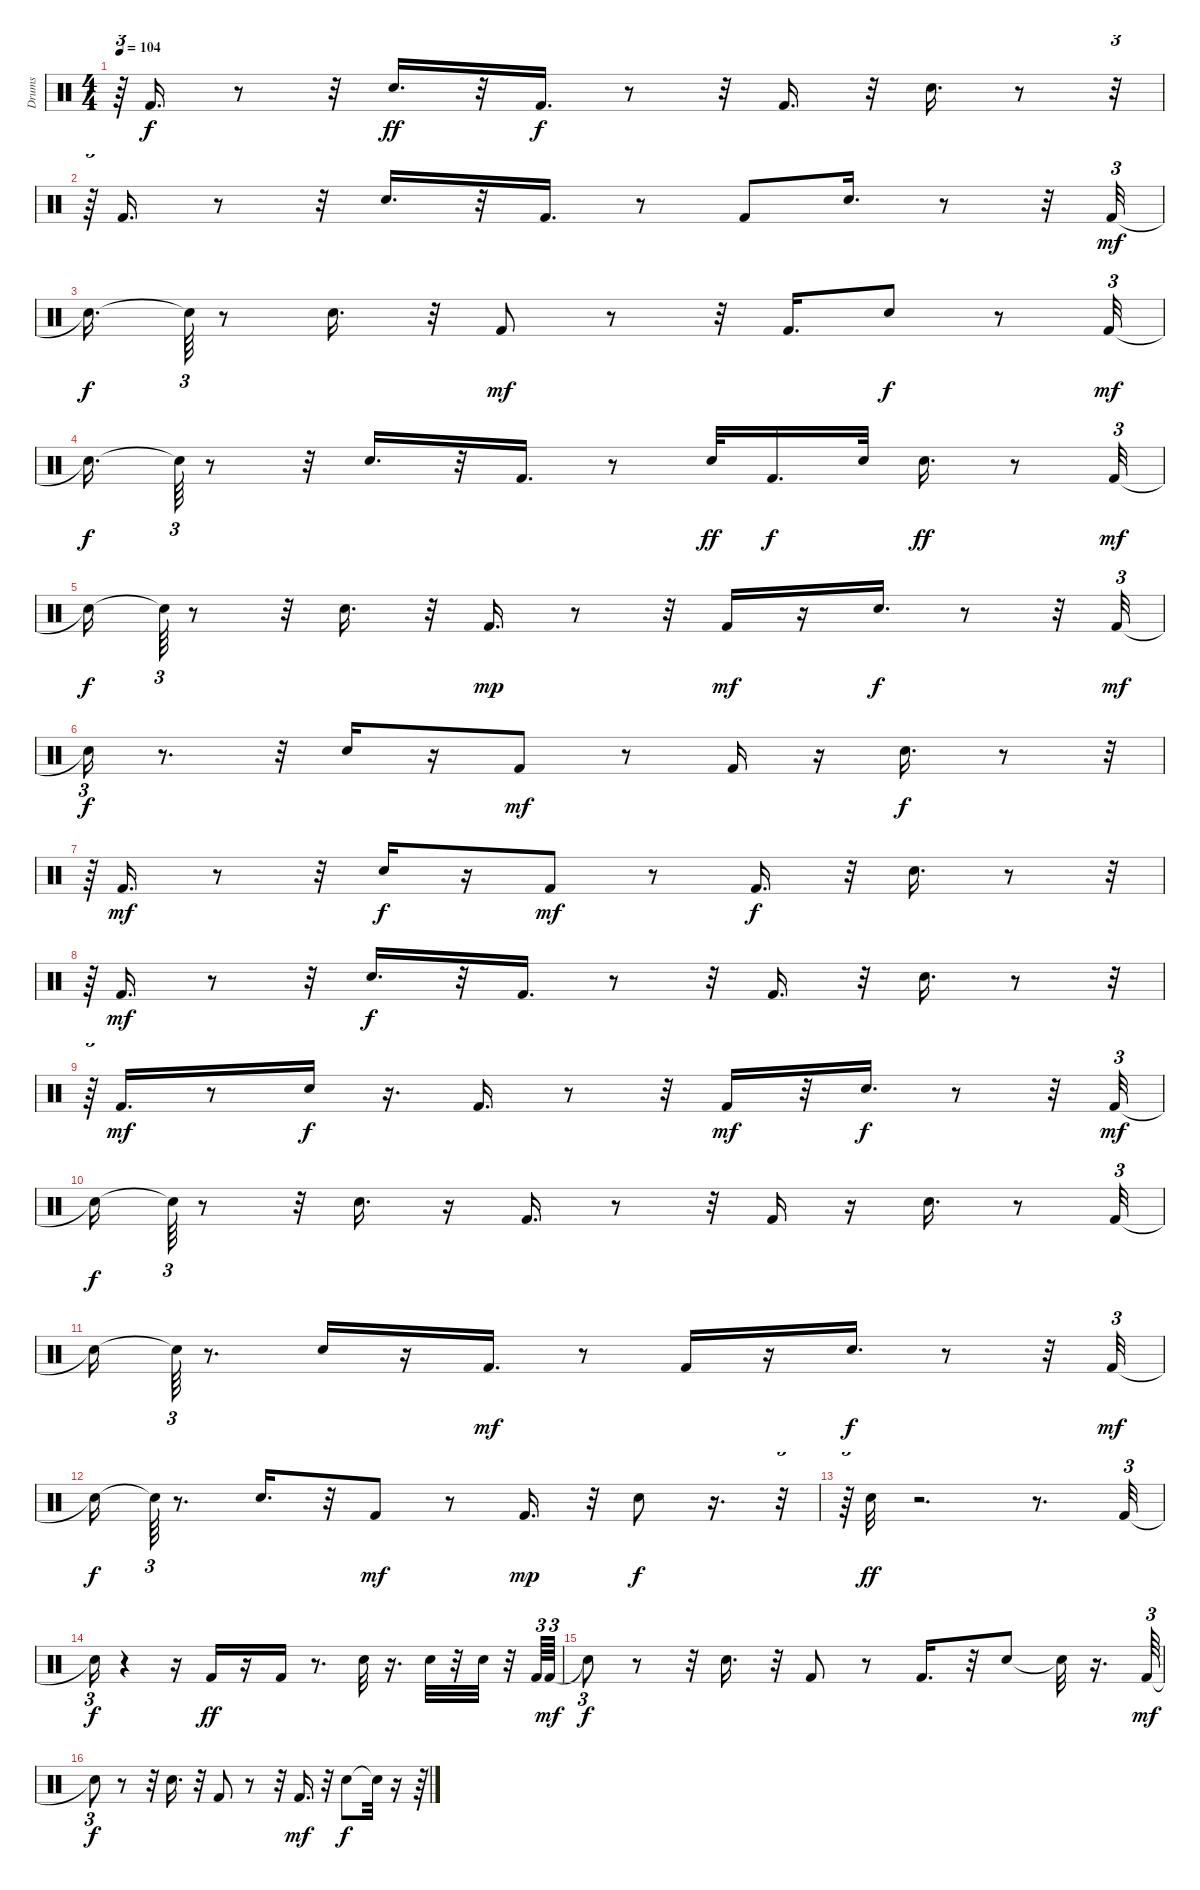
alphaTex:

\track ("Drums" "Drums") {instrument percussion}
\staff {score}
\articulation defaults
\ts (4 4)
\tempo 104
\clef neutral
\ks c
r.64{tu (3 2) dy ff} "Kick (hit) 2".16{d dy f} r.8 r.32 "Snare (hit) 2".16{d dy ff} r.32 "Kick (hit) 2".16{d dy f} r.8 r.32 "Kick (hit) 2".16{d} r.32 "Snare (hit) 2".16{d} r.8 r.32{tu (3 2)} |
r.64{tu (3 2)} "Kick (hit) 2".16{d} r.8 r.32 "Snare (hit) 2".16{d} r.32 "Kick (hit) 2".16{d} r.8 "Kick (hit) 2".8 "Snare (hit) 2".16{d} r.8 r.32 "Kick (hit) 2".32{tu (3 2) dy mf} |
"Snare (hit)"{t}.16{d dy f} "Snare (hit)"{t}.64{tu (3 2)} r.8 "Snare (hit) 2".16{d} r.32 "Kick (hit) 2".8{dy mf} r.8 r.32 "Kick (hit) 2".16{d} "Snare (hit) 2".8{dy f} r.8 "Kick (hit) 2".32{tu (3 2) dy mf} |
"Snare (hit)"{t}.16{d dy f} "Snare (hit)"{t}.64{tu (3 2)} r.8 r.32 "Snare (hit) 2".16{d} r.32 "Kick (hit) 2".16{d} r.8 "Snare (hit) 2".32{dy ff} "Kick (hit) 2".16{d dy f} "Snare (hit) 2".32 "Snare (hit) 2".16{d dy ff} r.8 "Kick (hit) 2".32{tu (3 2) dy mf} |
"Snare (hit)"{t}.16{dy f} "Snare (hit)"{t}.64{tu (3 2)} r.8 r.32 "Snare (hit) 2".16{d} r.32 "Kick (hit) 2".16{d dy mp} r.8 r.32 "Kick (hit) 2".16{dy mf} r.16 "Snare (hit) 2".16{d dy f} r.8 r.32 "Kick (hit) 2".32{tu (3 2) dy mf} |
"Snare (hit)"{t}.16{tu (3 2) dy f} r.8{d} r.32 "Snare (hit) 2".16 r.16 "Kick (hit) 2".8{dy mf} r.8 "Kick (hit) 2".16 r.16 "Snare (hit) 2".16{d dy f} r.8 r.32{tu (3 2)} |
r.64{tu (3 2)} "Kick (hit) 2".16{d dy mf} r.8 r.32 "Snare (hit) 2".16{dy f} r.16 "Kick (hit) 2".8{dy mf} r.8 "Kick (hit) 2".16{d dy f} r.32 "Snare (hit) 2".16{d} r.8 r.32{tu (3 2)} |
r.64{tu (3 2)} "Kick (hit) 2".16{d dy mf} r.8 r.32 "Snare (hit) 2".16{d dy f} r.32 "Kick (hit) 2".16{d} r.8 r.32 "Kick (hit) 2".16{d} r.32 "Snare (hit) 2".16{d} r.8 r.32{tu (3 2)} |
r.64{tu (3 2)} "Kick (hit) 2".16{d dy mf} r.8 "Snare (hit) 2".16{dy f} r.16{d} "Kick (hit) 2".16{d} r.8 r.32 "Kick (hit) 2".16{dy mf} r.32 "Snare (hit) 2".16{d dy f} r.8 r.32 "Kick (hit) 2".32{tu (3 2) dy mf} |
"Snare (hit)"{t}.16{dy f} "Snare (hit)"{t}.64{tu (3 2)} r.8 r.32 "Snare (hit) 2".16{d} r.16 "Kick (hit) 2".16{d} r.8 r.32 "Kick (hit) 2".16 r.16 "Snare (hit) 2".16{d} r.8 "Kick (hit) 2".32{tu (3 2)} |
"Snare (hit)"{t}.16 "Snare (hit)"{t}.64{tu (3 2)} r.8{d} "Snare (hit) 2".16 r.16 "Kick (hit) 2".16{d dy mf} r.8 "Kick (hit) 2".16 r.16 "Snare (hit) 2".16{d dy f} r.8 r.32 "Kick (hit) 2".32{tu (3 2) dy mf} |
"Snare (hit)"{t}.16{dy f} "Snare (hit)"{t}.64{tu (3 2)} r.8{d} "Snare (hit) 2".16{d} r.32 "Kick (hit) 2".8{dy mf} r.8 "Kick (hit) 2".16{d dy mp} r.32 "Snare (hit) 2".8{dy f} r.16{d} r.32{tu (3 2)} |
r.64{tu (3 2)} "Snare (hit) 2".32{dy ff} r.2{d} r.8{d} "Kick (hit) 2".32{tu (3 2)} |
"Snare (hit)"{t}.16{tu (3 2) dy f} r.4 r.16 "Kick (hit) 2".16{dy ff} r.16 "Kick (hit) 2".16 r.8{d} "Snare (hit) 2".32 r.16{d} "Snare (hit) 2".32 r.32 "Snare (hit) 2".32 r.32 "Kick (hit) 2".64{tu (3 2)} "Kick (hit) 2".64{tu (3 2) dy mf} |
"Snare (hit)"{t}.8{tu (3 2) dy f} r.8 r.32 "Snare (hit) 2".16{d} r.32 "Kick (hit) 2".8 r.8 "Kick (hit) 2".16{d} r.32 "Snare (hit) 2".8 "Snare (hit)"{t}.32 r.16{d} "Kick (hit) 2".64{tu (3 2) dy mf} |
"Snare (hit)"{t}.8{tu (3 2) dy f} r.8 r.32 "Snare (hit) 2".16{d} r.32 "Kick (hit) 2".8 r.8 r.32 "Kick (hit) 2".16{d dy mf} r.32 "Snare (hit) 2".8{dy f} "Snare (hit)"{t}.32 r.16 r.64{tu (3 2)}
